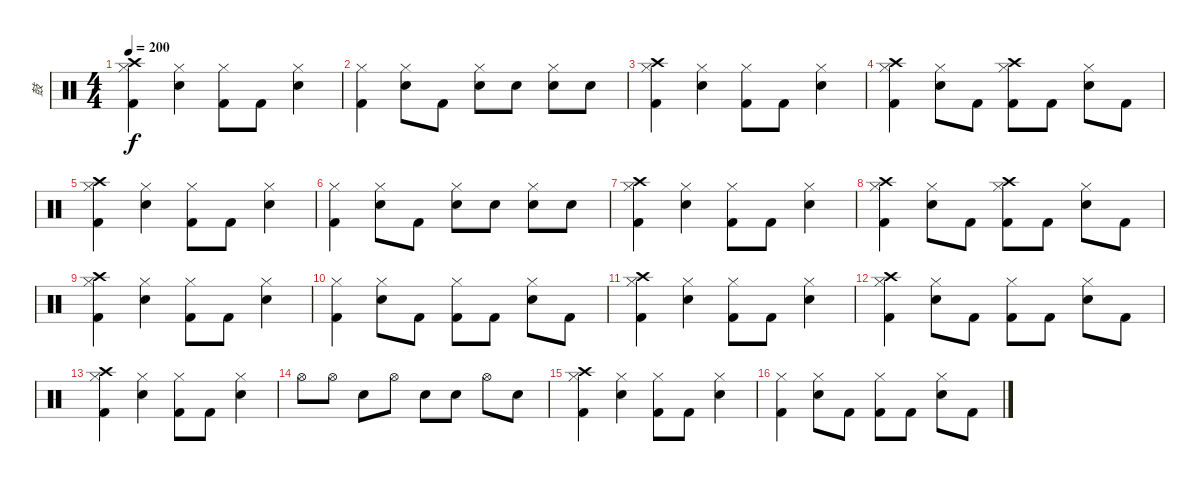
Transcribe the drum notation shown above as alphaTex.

\track ("鼓" "鼓") {instrument percussion}
\staff {score}
\articulation defaults
\ts (4 4)
\tempo 200
\clef neutral
\ks c
("Hi-Hat (closed)" "Crash high (hit)" "Kick (hit) 2").4{dy f} ("Hi-Hat (closed)" "Snare (hit) 2").4 ("Hi-Hat (closed)" "Kick (hit) 2").8 "Kick (hit) 2".8 ("Hi-Hat (closed)" "Snare (hit) 2").4 |
("Hi-Hat (closed)" "Kick (hit) 2").4 ("Hi-Hat (closed)" "Snare (hit) 2").8 "Kick (hit) 2".8 ("Hi-Hat (closed)" "Snare (hit) 2").8 "Snare (hit) 2".8 ("Hi-Hat (closed)" "Snare (hit) 2").8 "Snare (hit) 2".8 |
("Hi-Hat (closed)" "Crash high (hit)" "Kick (hit) 2").4 ("Hi-Hat (closed)" "Snare (hit) 2").4 ("Hi-Hat (closed)" "Kick (hit) 2").8 "Kick (hit) 2".8 ("Hi-Hat (closed)" "Snare (hit) 2").4 |
("Hi-Hat (closed)" "Crash high (hit)" "Kick (hit) 2").4 ("Hi-Hat (closed)" "Snare (hit) 2").8 "Kick (hit) 2".8 ("Hi-Hat (closed)" "Crash high (hit)" "Kick (hit) 2").8 "Kick (hit) 2".8 ("Hi-Hat (closed)" "Snare (hit) 2").8 "Kick (hit) 2".8 |
("Hi-Hat (closed)" "Crash high (hit)" "Kick (hit) 2").4 ("Hi-Hat (closed)" "Snare (hit) 2").4 ("Hi-Hat (closed)" "Kick (hit) 2").8 "Kick (hit) 2".8 ("Hi-Hat (closed)" "Snare (hit) 2").4 |
("Hi-Hat (closed)" "Kick (hit) 2").4 ("Hi-Hat (closed)" "Snare (hit) 2").8 "Kick (hit) 2".8 ("Hi-Hat (closed)" "Snare (hit) 2").8 "Snare (hit) 2".8 ("Hi-Hat (closed)" "Snare (hit) 2").8 "Snare (hit) 2".8 |
("Hi-Hat (closed)" "Crash high (hit)" "Kick (hit) 2").4 ("Hi-Hat (closed)" "Snare (hit) 2").4 ("Hi-Hat (closed)" "Kick (hit) 2").8 "Kick (hit) 2".8 ("Hi-Hat (closed)" "Snare (hit) 2").4 |
("Hi-Hat (closed)" "Crash high (hit)" "Kick (hit) 2").4 ("Hi-Hat (closed)" "Snare (hit) 2").8 "Kick (hit) 2".8 ("Hi-Hat (closed)" "Crash high (hit)" "Kick (hit) 2").8 "Kick (hit) 2".8 ("Hi-Hat (closed)" "Snare (hit) 2").8 "Kick (hit) 2".8 |
("Hi-Hat (closed)" "Crash high (hit)" "Kick (hit) 2").4 ("Hi-Hat (closed)" "Snare (hit) 2").4 ("Hi-Hat (closed)" "Kick (hit) 2").8 "Kick (hit) 2".8 ("Hi-Hat (closed)" "Snare (hit) 2").4 |
("Hi-Hat (closed)" "Kick (hit) 2").4 ("Hi-Hat (closed)" "Snare (hit) 2").8 "Kick (hit) 2".8 ("Hi-Hat (closed)" "Kick (hit) 2").8 "Kick (hit) 2".8 ("Hi-Hat (closed)" "Snare (hit) 2").8 "Kick (hit) 2".8 |
("Hi-Hat (closed)" "Crash high (hit)" "Kick (hit) 2").4 ("Hi-Hat (closed)" "Snare (hit) 2").4 ("Hi-Hat (closed)" "Kick (hit) 2").8 "Kick (hit) 2".8 ("Hi-Hat (closed)" "Snare (hit) 2").4 |
("Hi-Hat (closed)" "Crash high (hit)" "Kick (hit) 2").4 ("Hi-Hat (closed)" "Snare (hit) 2").8 "Kick (hit) 2".8 ("Hi-Hat (closed)" "Kick (hit) 2").8 "Kick (hit) 2".8 ("Hi-Hat (closed)" "Snare (hit) 2").8 "Kick (hit) 2".8 |
("Hi-Hat (closed)" "Crash high (hit)" "Kick (hit) 2").4 ("Hi-Hat (closed)" "Snare (hit) 2").4 ("Hi-Hat (closed)" "Kick (hit) 2").8 "Kick (hit) 2".8 ("Hi-Hat (closed)" "Snare (hit) 2").4 |
"Hi-Hat (open)".8 "Hi-Hat (open)".8 "Snare (hit) 2".8 "Hi-Hat (open)".8 "Snare (hit) 2".8 "Snare (hit) 2".8 "Hi-Hat (open)".8 "Snare (hit) 2".8 |
("Hi-Hat (closed)" "Crash high (hit)" "Kick (hit) 2").4 ("Hi-Hat (closed)" "Snare (hit) 2").4 ("Hi-Hat (closed)" "Kick (hit) 2").8 "Kick (hit) 2".8 ("Hi-Hat (closed)" "Snare (hit) 2").4 |
("Hi-Hat (closed)" "Kick (hit) 2").4 ("Hi-Hat (closed)" "Snare (hit) 2").8 "Kick (hit) 2".8 ("Hi-Hat (closed)" "Kick (hit) 2").8 "Kick (hit) 2".8 ("Hi-Hat (closed)" "Snare (hit) 2").8 "Kick (hit) 2".8
